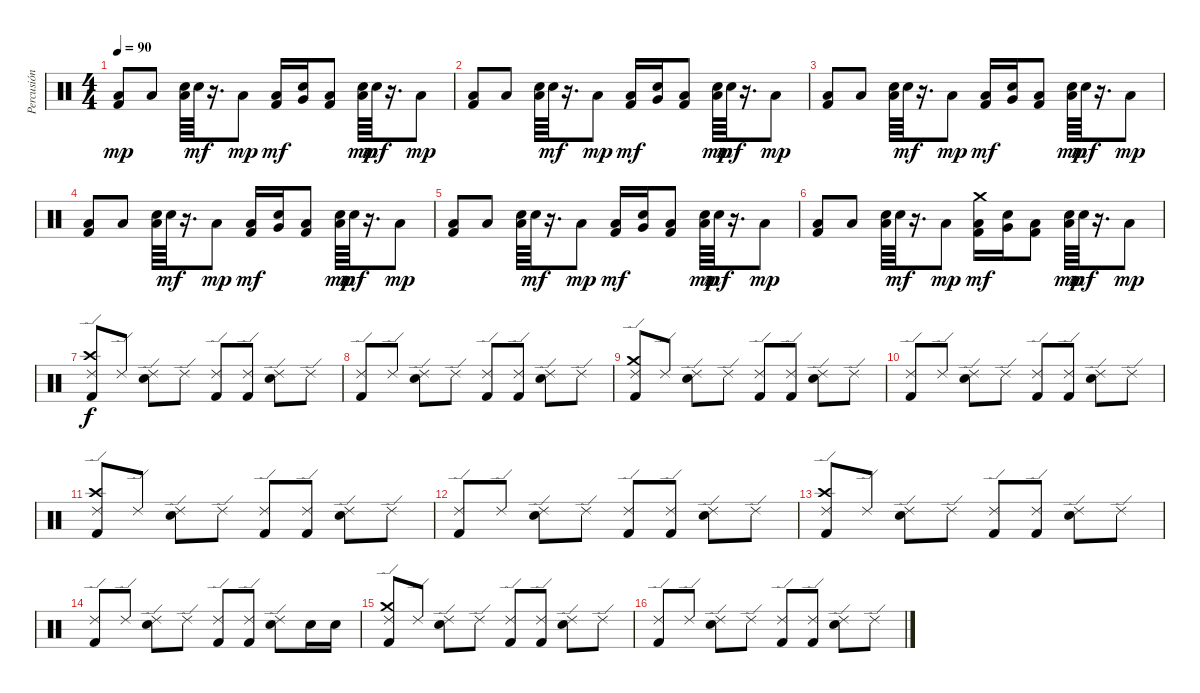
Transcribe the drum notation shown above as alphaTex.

\track ("Percusión" "Percusión") {instrument percussion}
\staff {score}
\articulation defaults
\ts (4 4)
\tempo 90
\clef neutral
\ks c
("Low Floor Tom (hit)" "Kick (hit) 2").8{dy mp} "Low Floor Tom (hit)".8 ("Low Floor Tom (hit)" "Electric Snare (hit)").64 "Electric Snare (hit)".64{dy mf} r.16{d} "Low Floor Tom (hit)".8{dy mp} ("Low Floor Tom (hit)" "Kick (hit) 2").16{dy mf} ("Very Low Tom (hit)" "Electric Snare (hit)").16 ("Low Floor Tom (hit)" "Kick (hit) 2").8 ("Low Floor Tom (hit)" "Electric Snare (hit)").64{dy mp} "Electric Snare (hit)".64{dy mf} r.16{d} "Low Floor Tom (hit)".8{dy mp} |
("Low Floor Tom (hit)" "Kick (hit) 2").8 "Low Floor Tom (hit)".8 ("Low Floor Tom (hit)" "Electric Snare (hit)").64 "Electric Snare (hit)".64{dy mf} r.16{d} "Low Floor Tom (hit)".8{dy mp} ("Low Floor Tom (hit)" "Kick (hit) 2").16{dy mf} ("Very Low Tom (hit)" "Electric Snare (hit)").16 ("Low Floor Tom (hit)" "Kick (hit) 2").8 ("Low Floor Tom (hit)" "Electric Snare (hit)").64{dy mp} "Electric Snare (hit)".64{dy mf} r.16{d} "Low Floor Tom (hit)".8{dy mp} |
("Low Floor Tom (hit)" "Kick (hit) 2").8 "Low Floor Tom (hit)".8 ("Low Floor Tom (hit)" "Electric Snare (hit)").64 "Electric Snare (hit)".64{dy mf} r.16{d} "Low Floor Tom (hit)".8{dy mp} ("Low Floor Tom (hit)" "Kick (hit) 2").16{dy mf} ("Very Low Tom (hit)" "Electric Snare (hit)").16 ("Low Floor Tom (hit)" "Kick (hit) 2").8 ("Low Floor Tom (hit)" "Electric Snare (hit)").64{dy mp} "Electric Snare (hit)".64{dy mf} r.16{d} "Low Floor Tom (hit)".8{dy mp} |
("Low Floor Tom (hit)" "Kick (hit) 2").8 "Low Floor Tom (hit)".8 ("Low Floor Tom (hit)" "Electric Snare (hit)").64 "Electric Snare (hit)".64{dy mf} r.16{d} "Low Floor Tom (hit)".8{dy mp} ("Low Floor Tom (hit)" "Kick (hit) 2").16{dy mf} ("Very Low Tom (hit)" "Electric Snare (hit)").16 ("Low Floor Tom (hit)" "Kick (hit) 2").8 ("Low Floor Tom (hit)" "Electric Snare (hit)").64{dy mp} "Electric Snare (hit)".64{dy mf} r.16{d} "Low Floor Tom (hit)".8{dy mp} |
("Low Floor Tom (hit)" "Kick (hit) 2").8 "Low Floor Tom (hit)".8 ("Low Floor Tom (hit)" "Electric Snare (hit)").64 "Electric Snare (hit)".64{dy mf} r.16{d} "Low Floor Tom (hit)".8{dy mp} ("Low Floor Tom (hit)" "Kick (hit) 2").16{dy mf} ("Very Low Tom (hit)" "Electric Snare (hit)").16 ("Low Floor Tom (hit)" "Kick (hit) 2").8 ("Low Floor Tom (hit)" "Electric Snare (hit)").64{dy mp} "Electric Snare (hit)".64{dy mf} r.16{d} "Low Floor Tom (hit)".8{dy mp} |
("Low Floor Tom (hit)" "Kick (hit) 2").8 "Low Floor Tom (hit)".8 ("Low Floor Tom (hit)" "Electric Snare (hit)").64 "Electric Snare (hit)".64{dy mf} r.16{d} "Low Floor Tom (hit)".8{dy mp} ("Crash medium (hit)" "Low Floor Tom (hit)" "Kick (hit) 2").16{dy mf} ("Very Low Tom (hit)" "Electric Snare (hit)").16 ("Low Floor Tom (hit)" "Kick (hit) 2").8 ("Low Floor Tom (hit)" "Electric Snare (hit)").64{dy mp} "Electric Snare (hit)".64{dy mf} r.16{d} "Low Floor Tom (hit)".8{dy mp} |
("Crash high (hit)" "Ride (edge) 2" "Kick (hit) 2").8{dy f} "Ride (edge) 2".8 ("Ride (edge) 2" "Electric Snare (hit)").8 "Ride (edge) 2".8 ("Ride (edge) 2" "Kick (hit) 2").8 ("Ride (edge) 2" "Kick (hit) 2").8 ("Ride (edge) 2" "Electric Snare (hit)").8 "Ride (edge) 2".8 |
("Ride (edge) 2" "Kick (hit) 2").8 "Ride (edge) 2".8 ("Ride (edge) 2" "Electric Snare (hit)").8 "Ride (edge) 2".8 ("Ride (edge) 2" "Kick (hit) 2").8 ("Ride (edge) 2" "Kick (hit) 2").8 ("Ride (edge) 2" "Electric Snare (hit)").8 "Ride (edge) 2".8 |
("Crash medium (hit)" "Ride (edge) 2" "Kick (hit) 2").8 "Ride (edge) 2".8 ("Ride (edge) 2" "Electric Snare (hit)").8 "Ride (edge) 2".8 ("Ride (edge) 2" "Kick (hit) 2").8 ("Ride (edge) 2" "Kick (hit) 2").8 ("Ride (edge) 2" "Electric Snare (hit)").8 "Ride (edge) 2".8 |
("Ride (edge) 2" "Kick (hit) 2").8 "Ride (edge) 2".8 ("Ride (edge) 2" "Electric Snare (hit)").8 "Ride (edge) 2".8 ("Ride (edge) 2" "Kick (hit) 2").8 ("Ride (edge) 2" "Kick (hit) 2").8 ("Ride (edge) 2" "Electric Snare (hit)").8 "Ride (edge) 2".8 |
("Crash high (hit)" "Ride (edge) 2" "Kick (hit) 2").8 "Ride (edge) 2".8 ("Ride (edge) 2" "Electric Snare (hit)").8 "Ride (edge) 2".8 ("Ride (edge) 2" "Kick (hit) 2").8 ("Ride (edge) 2" "Kick (hit) 2").8 ("Ride (edge) 2" "Electric Snare (hit)").8 "Ride (edge) 2".8 |
("Ride (edge) 2" "Kick (hit) 2").8 "Ride (edge) 2".8 ("Ride (edge) 2" "Electric Snare (hit)").8 "Ride (edge) 2".8 ("Ride (edge) 2" "Kick (hit) 2").8 ("Ride (edge) 2" "Kick (hit) 2").8 ("Ride (edge) 2" "Electric Snare (hit)").8 "Ride (edge) 2".8 |
("Crash high (hit)" "Ride (edge) 2" "Kick (hit) 2").8 "Ride (edge) 2".8 ("Ride (edge) 2" "Electric Snare (hit)").8 "Ride (edge) 2".8 ("Ride (edge) 2" "Kick (hit) 2").8 ("Ride (edge) 2" "Kick (hit) 2").8 ("Ride (edge) 2" "Electric Snare (hit)").8 "Ride (edge) 2".8 |
("Ride (edge) 2" "Kick (hit) 2").8 "Ride (edge) 2".8 ("Ride (edge) 2" "Electric Snare (hit)").8 "Ride (edge) 2".8 ("Ride (edge) 2" "Kick (hit) 2").8 ("Ride (edge) 2" "Kick (hit) 2").8 ("Ride (edge) 2" "Electric Snare (hit)").8 "Electric Snare (hit)".16 "Electric Snare (hit)".16 |
("Crash medium (hit)" "Ride (edge) 2" "Kick (hit) 2").8 "Ride (edge) 2".8 ("Ride (edge) 2" "Electric Snare (hit)").8 "Ride (edge) 2".8 ("Ride (edge) 2" "Kick (hit) 2").8 ("Ride (edge) 2" "Kick (hit) 2").8 ("Ride (edge) 2" "Electric Snare (hit)").8 "Ride (edge) 2".8 |
("Ride (edge) 2" "Kick (hit) 2").8 "Ride (edge) 2".8 ("Ride (edge) 2" "Electric Snare (hit)").8 "Ride (edge) 2".8 ("Ride (edge) 2" "Kick (hit) 2").8 ("Ride (edge) 2" "Kick (hit) 2").8 ("Ride (edge) 2" "Electric Snare (hit)").8 "Ride (edge) 2".8
